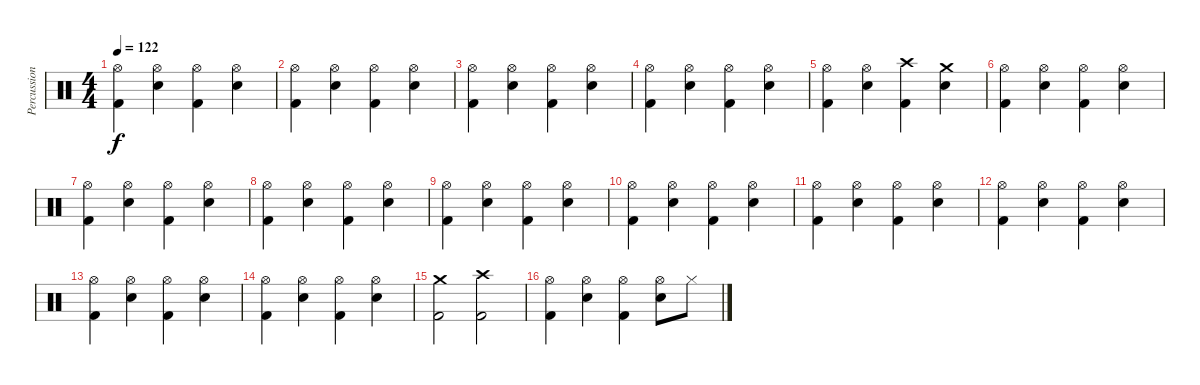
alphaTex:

\track ("Percussion" "Percussion") {instrument percussion}
\staff {score}
\articulation defaults
\ts (4 4)
\tempo 122
\clef neutral
\ks c
("Hi-Hat (open)" "Kick (hit) 2").4{dy f} ("Hi-Hat (open)" "Electric Snare (hit)").4 ("Hi-Hat (open)" "Kick (hit) 2").4 ("Hi-Hat (open)" "Electric Snare (hit)").4 |
("Hi-Hat (open)" "Kick (hit) 2").4 ("Hi-Hat (open)" "Electric Snare (hit)").4 ("Hi-Hat (open)" "Kick (hit) 2").4 ("Hi-Hat (open)" "Electric Snare (hit)").4 |
("Hi-Hat (open)" "Kick (hit) 2").4 ("Hi-Hat (open)" "Electric Snare (hit)").4 ("Hi-Hat (open)" "Kick (hit) 2").4 ("Hi-Hat (open)" "Electric Snare (hit)").4 |
("Hi-Hat (open)" "Kick (hit) 2").4 ("Hi-Hat (open)" "Electric Snare (hit)").4 ("Hi-Hat (open)" "Kick (hit) 2").4 ("Hi-Hat (open)" "Electric Snare (hit)").4 |
("Hi-Hat (open)" "Kick (hit) 2").4 ("Hi-Hat (open)" "Electric Snare (hit)").4 ("Crash high (hit)" "Kick (hit) 2").4 ("Crash medium (hit)" "Electric Snare (hit)").4 |
("Hi-Hat (open)" "Kick (hit) 2").4 ("Hi-Hat (open)" "Electric Snare (hit)").4 ("Hi-Hat (open)" "Kick (hit) 2").4 ("Hi-Hat (open)" "Electric Snare (hit)").4 |
("Hi-Hat (open)" "Kick (hit) 2").4 ("Hi-Hat (open)" "Electric Snare (hit)").4 ("Hi-Hat (open)" "Kick (hit) 2").4 ("Hi-Hat (open)" "Electric Snare (hit)").4 |
("Hi-Hat (open)" "Kick (hit) 2").4 ("Hi-Hat (open)" "Electric Snare (hit)").4 ("Hi-Hat (open)" "Kick (hit) 2").4 ("Hi-Hat (open)" "Electric Snare (hit)").4 |
("Hi-Hat (open)" "Kick (hit) 2").4 ("Hi-Hat (open)" "Electric Snare (hit)").4 ("Hi-Hat (open)" "Kick (hit) 2").4 ("Hi-Hat (open)" "Electric Snare (hit)").4 |
("Hi-Hat (open)" "Kick (hit) 2").4 ("Hi-Hat (open)" "Electric Snare (hit)").4 ("Hi-Hat (open)" "Kick (hit) 2").4 ("Hi-Hat (open)" "Electric Snare (hit)").4 |
("Hi-Hat (open)" "Kick (hit) 2").4 ("Hi-Hat (open)" "Electric Snare (hit)").4 ("Hi-Hat (open)" "Kick (hit) 2").4 ("Hi-Hat (open)" "Electric Snare (hit)").4 |
("Hi-Hat (open)" "Kick (hit) 2").4 ("Hi-Hat (open)" "Electric Snare (hit)").4 ("Hi-Hat (open)" "Kick (hit) 2").4 ("Hi-Hat (open)" "Electric Snare (hit)").4 |
("Hi-Hat (open)" "Kick (hit) 2").4 ("Hi-Hat (open)" "Electric Snare (hit)").4 ("Hi-Hat (open)" "Kick (hit) 2").4 ("Hi-Hat (open)" "Electric Snare (hit)").4 |
("Hi-Hat (open)" "Kick (hit) 2").4 ("Hi-Hat (open)" "Electric Snare (hit)").4 ("Hi-Hat (open)" "Kick (hit) 2").4 ("Hi-Hat (open)" "Electric Snare (hit)").4 |
("Crash medium (hit)" "Kick (hit) 2").2 ("Crash high (hit)" "Kick (hit) 2").2 |
("Hi-Hat (open)" "Kick (hit) 2").4 ("Hi-Hat (open)" "Electric Snare (hit)").4 ("Hi-Hat (open)" "Kick (hit) 2").4 ("Hi-Hat (open)" "Electric Snare (hit)").8 "Hi-Hat (closed)".8
